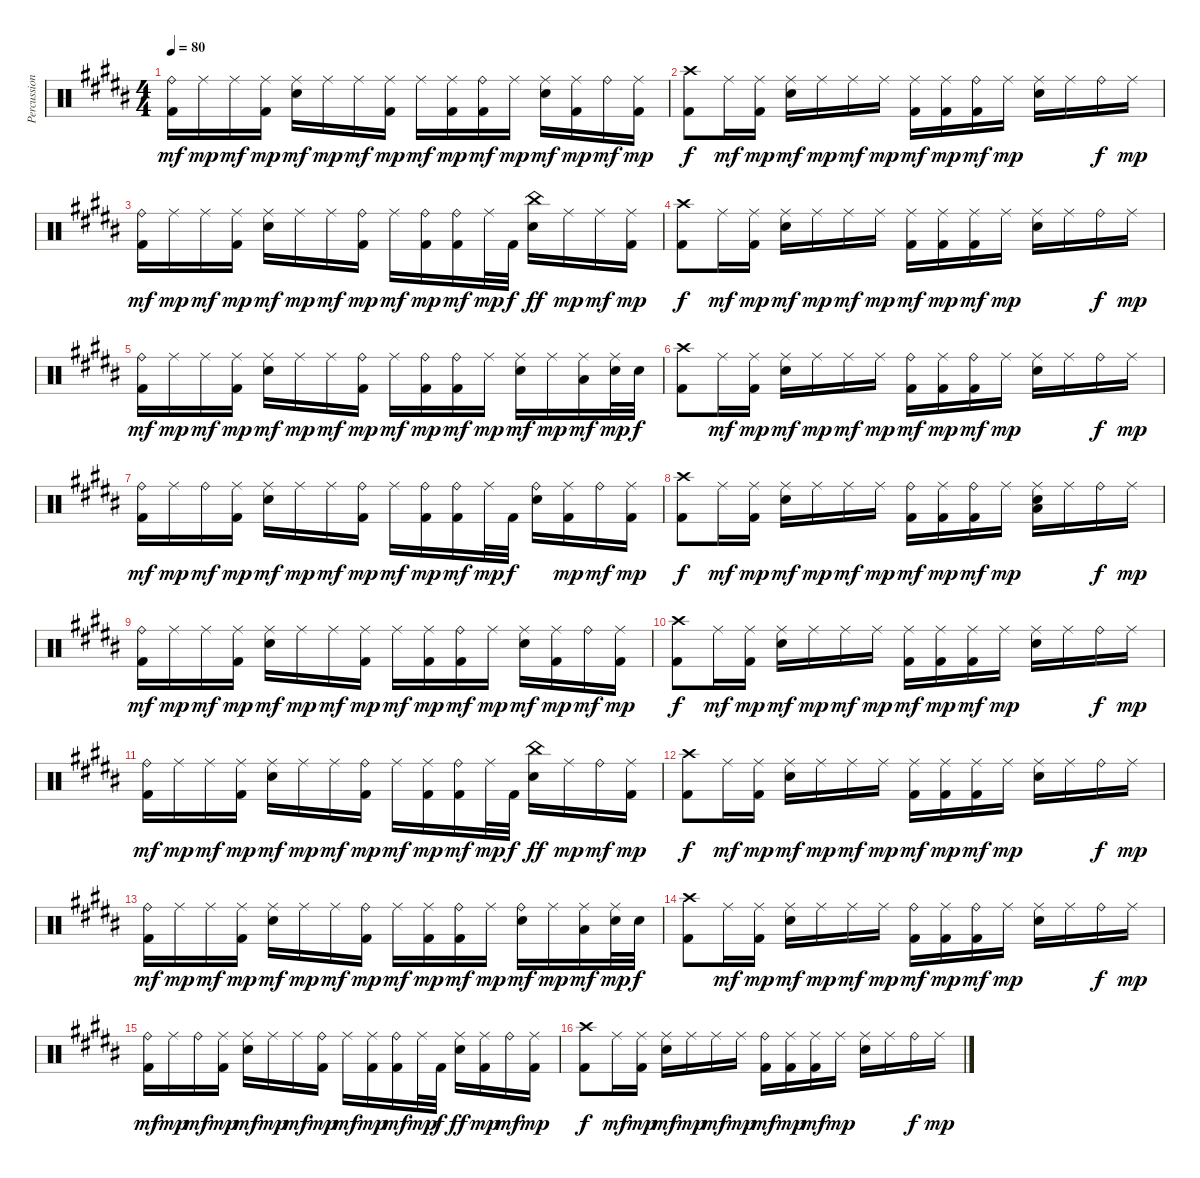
\track ("Percussion" "Percussion") {instrument percussion}
\staff {score}
\articulation defaults
\ts (4 4)
\tempo 80
\clef neutral
\ks b
("Ride (bell)" "Kick (hit) 2").16{dy mf} "Ride (middle)".16{dy mp} "Ride (middle)".16{dy mf} ("Ride (middle)" "Kick (hit) 2").16{dy mp} ("Ride (middle)" "Snare (hit) 2").16{dy mf} "Ride (middle)".16{dy mp} "Ride (middle)".16{dy mf} ("Ride (middle)" "Kick (hit) 2").16{dy mp} "Ride (middle)".16{dy mf} ("Ride (middle)" "Kick (hit) 2").16{dy mp} ("Ride (bell)" "Kick (hit) 2").16{dy mf} "Ride (middle)".16{dy mp} ("Ride (middle)" "Snare (hit) 2").16{dy mf} ("Ride (middle)" "Kick (hit) 2").16{dy mp} "Ride (bell)".16{dy mf} ("Ride (middle)" "Kick (hit) 2").16{dy mp} |
("Crash high (hit)" "Kick (hit) 2").8{dy f} "Ride (middle)".16{dy mf} ("Ride (middle)" "Kick (hit) 2").16{dy mp} ("Ride (middle)" "Snare (hit) 2").16{dy mf} "Ride (middle)".16{dy mp} "Ride (middle)".16{dy mf} "Ride (middle)".16{dy mp} ("Ride (middle)" "Kick (hit) 2").16{dy mf} ("Ride (middle)" "Kick (hit) 2").16{dy mp} ("Ride (bell)" "Kick (hit) 2").16{dy mf} "Ride (middle)".16{dy mp} ("Ride (middle)" "Snare (hit) 2").16 "Ride (middle)".16 "Ride (bell)".16{dy f} "Ride (middle)".16{dy mp} |
("Ride (bell)" "Kick (hit) 2").16{dy mf} "Ride (middle)".16{dy mp} "Ride (middle)".16{dy mf} ("Ride (middle)" "Kick (hit) 2").16{dy mp} ("Ride (middle)" "Snare (hit) 2").16{dy mf} "Ride (middle)".16{dy mp} "Ride (middle)".16{dy mf} ("Ride (bell)" "Kick (hit) 2").16{dy mp} "Ride (middle)".16{dy mf} ("Ride (bell)" "Kick (hit) 2").16{dy mp} ("Ride (bell)" "Kick (hit) 2").16{dy mf} "Ride (middle)".32{dy mp} "Kick (hit) 2".32{dy f} ("China (hit)" "Snare (hit) 2").16{dy ff} "Ride (middle)".16{dy mp} "Ride (middle)".16{dy mf} ("Ride (middle)" "Kick (hit) 2").16{dy mp} |
("Crash high (hit)" "Kick (hit) 2").8{dy f} "Ride (middle)".16{dy mf} ("Ride (middle)" "Kick (hit) 2").16{dy mp} ("Ride (middle)" "Snare (hit) 2").16{dy mf} "Ride (middle)".16{dy mp} "Ride (middle)".16{dy mf} "Ride (middle)".16{dy mp} ("Ride (middle)" "Kick (hit) 2").16{dy mf} ("Ride (middle)" "Kick (hit) 2").16{dy mp} ("Ride (middle)" "Kick (hit) 2").16{dy mf} "Ride (middle)".16{dy mp} ("Ride (middle)" "Snare (hit) 2").16 "Ride (middle)".16 "Ride (bell)".16{dy f} "Ride (middle)".16{dy mp} |
("Ride (bell)" "Kick (hit) 2").16{dy mf} "Ride (middle)".16{dy mp} "Ride (middle)".16{dy mf} ("Ride (middle)" "Kick (hit) 2").16{dy mp} ("Ride (middle)" "Snare (hit) 2").16{dy mf} "Ride (middle)".16{dy mp} "Ride (middle)".16{dy mf} ("Ride (bell)" "Kick (hit) 2").16{dy mp} "Ride (middle)".16{dy mf} ("Ride (bell)" "Kick (hit) 2").16{dy mp} ("Ride (bell)" "Kick (hit) 2").16{dy mf} "Ride (middle)".16{dy mp} ("Ride (middle)" "Snare (hit) 2").16{dy mf} "Ride (middle)".16{dy mp} ("Ride (middle)" "Low Tom (hit)").16{dy mf} ("Ride (middle)" "Snare (hit) 2").32{dy mp} "Snare (hit) 2".32{dy f} |
("Crash high (hit)" "Kick (hit) 2").8 "Ride (middle)".16{dy mf} ("Ride (middle)" "Kick (hit) 2").16{dy mp} ("Ride (middle)" "Snare (hit) 2").16{dy mf} "Ride (middle)".16{dy mp} "Ride (middle)".16{dy mf} "Ride (middle)".16{dy mp} ("Ride (bell)" "Kick (hit) 2").16{dy mf} ("Ride (middle)" "Kick (hit) 2").16{dy mp} ("Ride (bell)" "Kick (hit) 2").16{dy mf} "Ride (middle)".16{dy mp} ("Ride (middle)" "Snare (hit) 2").16 "Ride (middle)".16 "Ride (bell)".16{dy f} "Ride (middle)".16{dy mp} |
("Ride (bell)" "Kick (hit) 2").16{dy mf} "Ride (middle)".16{dy mp} "Ride (bell)".16{dy mf} ("Ride (middle)" "Kick (hit) 2").16{dy mp} ("Ride (middle)" "Snare (hit) 2").16{dy mf} "Ride (middle)".16{dy mp} "Ride (middle)".16{dy mf} ("Ride (bell)" "Kick (hit) 2").16{dy mp} "Ride (middle)".16{dy mf} ("Ride (bell)" "Kick (hit) 2").16{dy mp} ("Ride (bell)" "Kick (hit) 2").16{dy mf} "Ride (middle)".32{dy mp} "Kick (hit) 2".32{dy f} ("Ride (bell)" "Snare (hit) 2").16 ("Ride (middle)" "Kick (hit) 2").16{dy mp} "Ride (bell)".16{dy mf} ("Ride (middle)" "Kick (hit) 2").16{dy mp} |
("Crash high (hit)" "Kick (hit) 2").8{dy f} "Ride (middle)".16{dy mf} ("Ride (middle)" "Kick (hit) 2").16{dy mp} ("Ride (middle)" "Snare (hit) 2").16{dy mf} "Ride (middle)".16{dy mp} "Ride (middle)".16{dy mf} "Ride (middle)".16{dy mp} ("Ride (bell)" "Kick (hit) 2").16{dy mf} ("Ride (middle)" "Kick (hit) 2").16{dy mp} ("Ride (bell)" "Kick (hit) 2").16{dy mf} "Ride (middle)".16{dy mp} ("Ride (middle)" "Snare (hit) 2" "Low Tom (hit)").16 "Ride (middle)".16 "Ride (bell)".16{dy f} "Ride (middle)".16{dy mp} |
("Ride (bell)" "Kick (hit) 2").16{dy mf} "Ride (middle)".16{dy mp} "Ride (middle)".16{dy mf} ("Ride (middle)" "Kick (hit) 2").16{dy mp} ("Ride (middle)" "Snare (hit) 2").16{dy mf} "Ride (middle)".16{dy mp} "Ride (middle)".16{dy mf} ("Ride (middle)" "Kick (hit) 2").16{dy mp} "Ride (middle)".16{dy mf} ("Ride (middle)" "Kick (hit) 2").16{dy mp} ("Ride (bell)" "Kick (hit) 2").16{dy mf} "Ride (middle)".16{dy mp} ("Ride (middle)" "Snare (hit) 2").16{dy mf} ("Ride (middle)" "Kick (hit) 2").16{dy mp} "Ride (bell)".16{dy mf} ("Ride (middle)" "Kick (hit) 2").16{dy mp} |
("Crash high (hit)" "Kick (hit) 2").8{dy f} "Ride (middle)".16{dy mf} ("Ride (middle)" "Kick (hit) 2").16{dy mp} ("Ride (middle)" "Snare (hit) 2").16{dy mf} "Ride (middle)".16{dy mp} "Ride (middle)".16{dy mf} "Ride (middle)".16{dy mp} ("Ride (middle)" "Kick (hit) 2").16{dy mf} ("Ride (middle)" "Kick (hit) 2").16{dy mp} ("Ride (middle)" "Kick (hit) 2").16{dy mf} "Ride (middle)".16{dy mp} ("Ride (middle)" "Snare (hit) 2").16 "Ride (middle)".16 "Ride (bell)".16{dy f} "Ride (middle)".16{dy mp} |
("Ride (bell)" "Kick (hit) 2").16{dy mf} "Ride (middle)".16{dy mp} "Ride (middle)".16{dy mf} ("Ride (middle)" "Kick (hit) 2").16{dy mp} ("Ride (middle)" "Snare (hit) 2").16{dy mf} "Ride (middle)".16{dy mp} "Ride (middle)".16{dy mf} ("Ride (bell)" "Kick (hit) 2").16{dy mp} "Ride (middle)".16{dy mf} ("Ride (middle)" "Kick (hit) 2").16{dy mp} ("Ride (bell)" "Kick (hit) 2").16{dy mf} "Ride (middle)".32{dy mp} "Kick (hit) 2".32{dy f} ("China (hit)" "Snare (hit) 2").16{dy ff} "Ride (middle)".16{dy mp} "Ride (bell)".16{dy mf} ("Ride (middle)" "Kick (hit) 2").16{dy mp} |
("Crash high (hit)" "Kick (hit) 2").8{dy f} "Ride (middle)".16{dy mf} ("Ride (middle)" "Kick (hit) 2").16{dy mp} ("Ride (middle)" "Snare (hit) 2").16{dy mf} "Ride (middle)".16{dy mp} "Ride (middle)".16{dy mf} "Ride (middle)".16{dy mp} ("Ride (middle)" "Kick (hit) 2").16{dy mf} ("Ride (middle)" "Kick (hit) 2").16{dy mp} ("Ride (middle)" "Kick (hit) 2").16{dy mf} "Ride (middle)".16{dy mp} ("Ride (middle)" "Snare (hit) 2").16 "Ride (middle)".16 "Ride (bell)".16{dy f} "Ride (middle)".16{dy mp} |
("Ride (bell)" "Kick (hit) 2").16{dy mf} "Ride (middle)".16{dy mp} "Ride (middle)".16{dy mf} ("Ride (middle)" "Kick (hit) 2").16{dy mp} ("Ride (middle)" "Snare (hit) 2").16{dy mf} "Ride (middle)".16{dy mp} "Ride (middle)".16{dy mf} ("Ride (bell)" "Kick (hit) 2").16{dy mp} "Ride (middle)".16{dy mf} ("Ride (middle)" "Kick (hit) 2").16{dy mp} ("Ride (bell)" "Kick (hit) 2").16{dy mf} "Ride (middle)".16{dy mp} ("Ride (bell)" "Snare (hit) 2").16{dy mf} "Ride (middle)".16{dy mp} ("Ride (middle)" "Low Tom (hit)").16{dy mf} ("Ride (middle)" "Snare (hit) 2").32{dy mp} "Snare (hit) 2".32{dy f} |
("Crash high (hit)" "Kick (hit) 2").8 "Ride (middle)".16{dy mf} ("Ride (middle)" "Kick (hit) 2").16{dy mp} ("Ride (middle)" "Snare (hit) 2").16{dy mf} "Ride (middle)".16{dy mp} "Ride (middle)".16{dy mf} "Ride (middle)".16{dy mp} ("Ride (bell)" "Kick (hit) 2").16{dy mf} ("Ride (middle)" "Kick (hit) 2").16{dy mp} ("Ride (bell)" "Kick (hit) 2").16{dy mf} "Ride (middle)".16{dy mp} ("Ride (middle)" "Snare (hit) 2").16 "Ride (middle)".16 "Ride (bell)".16{dy f} "Ride (middle)".16{dy mp} |
("Ride (bell)" "Kick (hit) 2").16{dy mf} "Ride (middle)".16{dy mp} "Ride (bell)".16{dy mf} ("Ride (middle)" "Kick (hit) 2").16{dy mp} ("Ride (middle)" "Snare (hit) 2").16{dy mf} "Ride (middle)".16{dy mp} "Ride (middle)".16{dy mf} ("Ride (bell)" "Kick (hit) 2").16{dy mp} "Ride (middle)".16{dy mf} ("Ride (middle)" "Kick (hit) 2").16{dy mp} ("Ride (bell)" "Kick (hit) 2").16{dy mf} "Ride (middle)".32{dy mp} "Kick (hit) 2".32{dy f} ("Ride (middle)" "Snare (hit) 2").16{dy ff} ("Ride (middle)" "Kick (hit) 2").16{dy mp} "Ride (bell)".16{dy mf} ("Ride (middle)" "Kick (hit) 2").16{dy mp} |
("Crash high (hit)" "Kick (hit) 2").8{dy f} "Ride (middle)".16{dy mf} ("Ride (middle)" "Kick (hit) 2").16{dy mp} ("Ride (middle)" "Snare (hit) 2").16{dy mf} "Ride (middle)".16{dy mp} "Ride (middle)".16{dy mf} "Ride (middle)".16{dy mp} ("Ride (bell)" "Kick (hit) 2").16{dy mf} ("Ride (middle)" "Kick (hit) 2").16{dy mp} ("Ride (middle)" "Kick (hit) 2").16{dy mf} "Ride (middle)".16{dy mp} ("Ride (middle)" "Snare (hit) 2").16 "Ride (middle)".16 "Ride (bell)".16{dy f} "Ride (middle)".16{dy mp}
